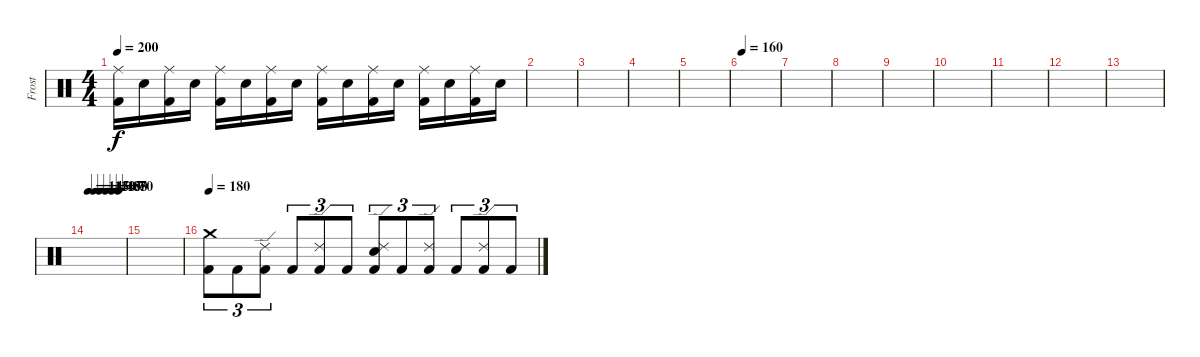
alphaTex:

\track ("Frost" "Frost") {instrument percussion}
\staff {score}
\articulation defaults
\ts (4 4)
\tempo 200
\clef neutral
\ks c
("Ride (middle)" "Kick (hit) 2").16{dy f volume 2} "Electric Snare (hit)".16 ("Ride (middle)" "Kick (hit) 2").16 "Electric Snare (hit)".16 ("Ride (middle)" "Kick (hit) 2").16 "Electric Snare (hit)".16 ("Ride (middle)" "Kick (hit) 2").16 "Electric Snare (hit)".16 ("Ride (middle)" "Kick (hit) 2").16 "Electric Snare (hit)".16 ("Ride (middle)" "Kick (hit) 2").16 "Electric Snare (hit)".16 ("Ride (middle)" "Kick (hit) 2").16 "Electric Snare (hit)".16 ("Ride (middle)" "Kick (hit) 2").16 "Electric Snare (hit)".16 |
|
|
|
|
\tempo 160
|
|
|
|
|
|
|
|
\tempo 145
\tempo (130 0.16666666666666666)
\tempo (115 0.3333333333333333)
\tempo (100 0.5)
\tempo (85 0.6666666666666666)
\tempo (70 0.8333333333333334)
|
|
\tempo 180
("Crash medium (hit)" "Kick (hit) 2").8{tu (3 2) volume 15} "Kick (hit) 2".8{tu (3 2)} ("Ride (edge) 2" "Kick (hit) 2").8{tu (3 2)} "Kick (hit) 2".8{tu (3 2)} ("Ride (edge) 2" "Kick (hit) 2").8{tu (3 2)} "Kick (hit) 2".8{tu (3 2)} ("Ride (edge) 2" "Electric Snare (hit)" "Kick (hit) 2").8{tu (3 2)} "Kick (hit) 2".8{tu (3 2)} ("Ride (edge) 2" "Kick (hit) 2").8{tu (3 2)} "Kick (hit) 2".8{tu (3 2)} ("Ride (edge) 2" "Kick (hit) 2").8{tu (3 2)} "Kick (hit) 2".8{tu (3 2)}
